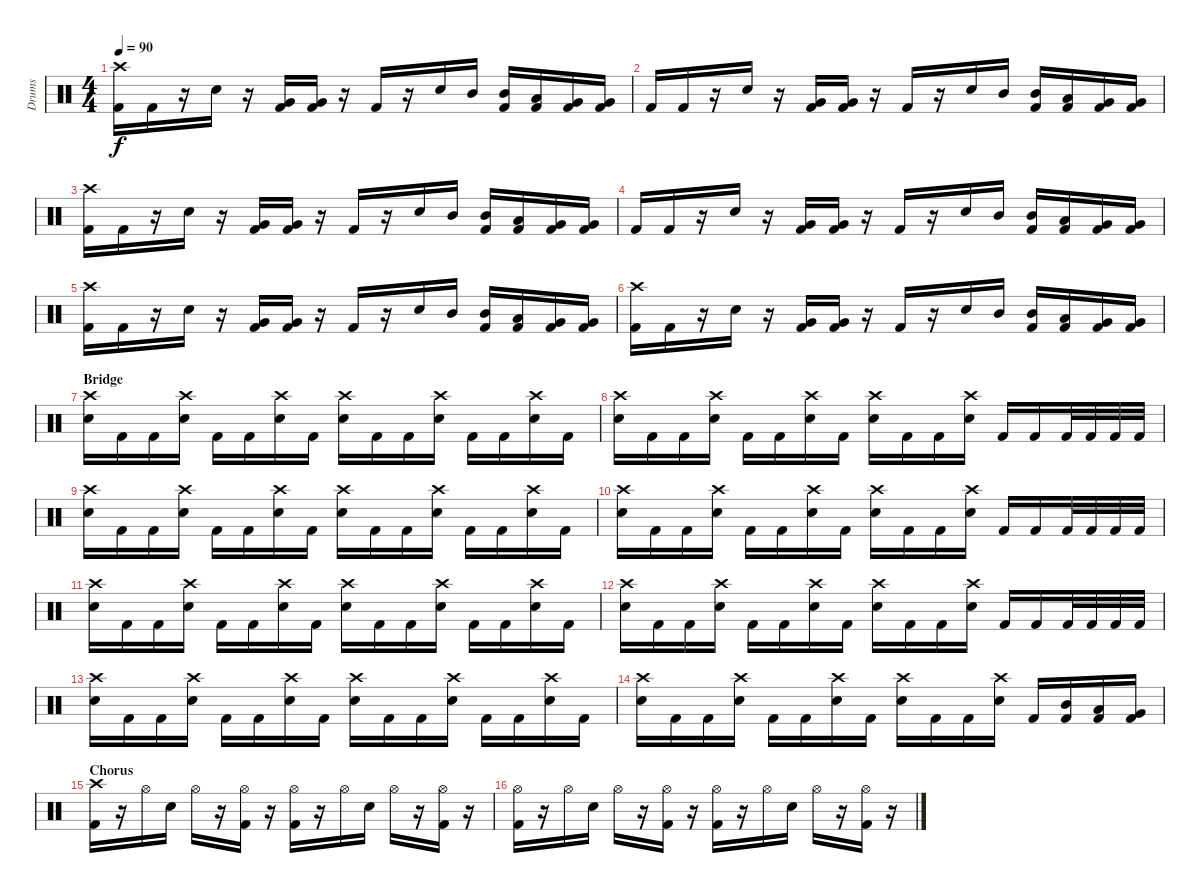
\track ("Drums" "Drums") {instrument percussion}
\staff {score}
\articulation defaults
\ts (4 4)
\tempo 90
\clef neutral
\ks c
("Kick (hit) 2" "Crash high (hit)").16{dy f} "Kick (hit) 2".16 r.16 "Snare (hit) 2".16 r.16 ("Kick (hit) 2" "Very Low Tom (hit)").16 ("Kick (hit) 2" "Very Low Tom (hit)").16 r.16 "Kick (hit) 2".16 r.16 "Snare (hit) 2".16 "Mid Tom (hit)".16 ("Kick (hit) 2" "Mid Tom (hit)").16 ("Kick (hit) 2" "Low Tom (hit)").16 ("Kick (hit) 2" "Very Low Tom (hit)").16 ("Kick (hit) 2" "Very Low Tom (hit)").16 |
"Kick (hit) 2".16 "Kick (hit) 2".16 r.16 "Snare (hit) 2".16 r.16 ("Kick (hit) 2" "Very Low Tom (hit)").16 ("Kick (hit) 2" "Very Low Tom (hit)").16 r.16 "Kick (hit) 2".16 r.16 "Snare (hit) 2".16 "Mid Tom (hit)".16 ("Kick (hit) 2" "Mid Tom (hit)").16 ("Kick (hit) 2" "Low Tom (hit)").16 ("Kick (hit) 2" "Very Low Tom (hit)").16 ("Kick (hit) 2" "Very Low Tom (hit)").16 |
("Kick (hit) 2" "Crash high (hit)").16 "Kick (hit) 2".16 r.16 "Snare (hit) 2".16 r.16 ("Kick (hit) 2" "Very Low Tom (hit)").16 ("Kick (hit) 2" "Very Low Tom (hit)").16 r.16 "Kick (hit) 2".16 r.16 "Snare (hit) 2".16 "Mid Tom (hit)".16 ("Kick (hit) 2" "Mid Tom (hit)").16 ("Kick (hit) 2" "Low Tom (hit)").16 ("Kick (hit) 2" "Very Low Tom (hit)").16 ("Kick (hit) 2" "Very Low Tom (hit)").16 |
"Kick (hit) 2".16 "Kick (hit) 2".16 r.16 "Snare (hit) 2".16 r.16 ("Kick (hit) 2" "Very Low Tom (hit)").16 ("Kick (hit) 2" "Very Low Tom (hit)").16 r.16 "Kick (hit) 2".16 r.16 "Snare (hit) 2".16 "Mid Tom (hit)".16 ("Kick (hit) 2" "Mid Tom (hit)").16 ("Kick (hit) 2" "Low Tom (hit)").16 ("Kick (hit) 2" "Very Low Tom (hit)").16 ("Kick (hit) 2" "Very Low Tom (hit)").16 |
("Kick (hit) 2" "Crash high (hit)").16 "Kick (hit) 2".16 r.16 "Snare (hit) 2".16 r.16 ("Kick (hit) 2" "Very Low Tom (hit)").16 ("Kick (hit) 2" "Very Low Tom (hit)").16 r.16 "Kick (hit) 2".16 r.16 "Snare (hit) 2".16 "Mid Tom (hit)".16 ("Kick (hit) 2" "Mid Tom (hit)").16 ("Kick (hit) 2" "Low Tom (hit)").16 ("Kick (hit) 2" "Very Low Tom (hit)").16 ("Kick (hit) 2" "Very Low Tom (hit)").16 |
("Kick (hit) 2" "Crash high (hit)").16 "Kick (hit) 2".16 r.16 "Snare (hit) 2".16 r.16 ("Kick (hit) 2" "Very Low Tom (hit)").16 ("Kick (hit) 2" "Very Low Tom (hit)").16 r.16 "Kick (hit) 2".16 r.16 "Snare (hit) 2".16 "Mid Tom (hit)".16 ("Kick (hit) 2" "Mid Tom (hit)").16 ("Kick (hit) 2" "Low Tom (hit)").16 ("Kick (hit) 2" "Very Low Tom (hit)").16 ("Kick (hit) 2" "Very Low Tom (hit)").16 |
\section ("" "Bridge")
("Snare (hit) 2" "Crash high (hit)").16 "Kick (hit) 2".16 "Kick (hit) 2".16 ("Snare (hit) 2" "Crash high (hit)").16 "Kick (hit) 2".16 "Kick (hit) 2".16 ("Snare (hit) 2" "Crash high (hit)").16 "Kick (hit) 2".16 ("Snare (hit) 2" "Crash high (hit)").16 "Kick (hit) 2".16 "Kick (hit) 2".16 ("Snare (hit) 2" "Crash high (hit)").16 "Kick (hit) 2".16 "Kick (hit) 2".16 ("Snare (hit) 2" "Crash high (hit)").16 "Kick (hit) 2".16 |
("Snare (hit) 2" "Crash high (hit)").16 "Kick (hit) 2".16 "Kick (hit) 2".16 ("Snare (hit) 2" "Crash high (hit)").16 "Kick (hit) 2".16 "Kick (hit) 2".16 ("Snare (hit) 2" "Crash high (hit)").16 "Kick (hit) 2".16 ("Snare (hit) 2" "Crash high (hit)").16 "Kick (hit) 2".16 "Kick (hit) 2".16 ("Snare (hit) 2" "Crash high (hit)").16 "Kick (hit) 2".16 "Kick (hit) 2".16 "Kick (hit) 2".32 "Kick (hit) 2".32 "Kick (hit) 2".32 "Kick (hit) 2".32 |
("Snare (hit) 2" "Crash high (hit)").16 "Kick (hit) 2".16 "Kick (hit) 2".16 ("Snare (hit) 2" "Crash high (hit)").16 "Kick (hit) 2".16 "Kick (hit) 2".16 ("Snare (hit) 2" "Crash high (hit)").16 "Kick (hit) 2".16 ("Snare (hit) 2" "Crash high (hit)").16 "Kick (hit) 2".16 "Kick (hit) 2".16 ("Snare (hit) 2" "Crash high (hit)").16 "Kick (hit) 2".16 "Kick (hit) 2".16 ("Snare (hit) 2" "Crash high (hit)").16 "Kick (hit) 2".16 |
("Snare (hit) 2" "Crash high (hit)").16 "Kick (hit) 2".16 "Kick (hit) 2".16 ("Snare (hit) 2" "Crash high (hit)").16 "Kick (hit) 2".16 "Kick (hit) 2".16 ("Snare (hit) 2" "Crash high (hit)").16 "Kick (hit) 2".16 ("Snare (hit) 2" "Crash high (hit)").16 "Kick (hit) 2".16 "Kick (hit) 2".16 ("Snare (hit) 2" "Crash high (hit)").16 "Kick (hit) 2".16 "Kick (hit) 2".16 "Kick (hit) 2".32 "Kick (hit) 2".32 "Kick (hit) 2".32 "Kick (hit) 2".32 |
("Snare (hit) 2" "Crash high (hit)").16 "Kick (hit) 2".16 "Kick (hit) 2".16 ("Snare (hit) 2" "Crash high (hit)").16 "Kick (hit) 2".16 "Kick (hit) 2".16 ("Snare (hit) 2" "Crash high (hit)").16 "Kick (hit) 2".16 ("Snare (hit) 2" "Crash high (hit)").16 "Kick (hit) 2".16 "Kick (hit) 2".16 ("Snare (hit) 2" "Crash high (hit)").16 "Kick (hit) 2".16 "Kick (hit) 2".16 ("Snare (hit) 2" "Crash high (hit)").16 "Kick (hit) 2".16 |
("Snare (hit) 2" "Crash high (hit)").16 "Kick (hit) 2".16 "Kick (hit) 2".16 ("Snare (hit) 2" "Crash high (hit)").16 "Kick (hit) 2".16 "Kick (hit) 2".16 ("Snare (hit) 2" "Crash high (hit)").16 "Kick (hit) 2".16 ("Snare (hit) 2" "Crash high (hit)").16 "Kick (hit) 2".16 "Kick (hit) 2".16 ("Snare (hit) 2" "Crash high (hit)").16 "Kick (hit) 2".16 "Kick (hit) 2".16 "Kick (hit) 2".32 "Kick (hit) 2".32 "Kick (hit) 2".32 "Kick (hit) 2".32 |
("Snare (hit) 2" "Crash high (hit)").16 "Kick (hit) 2".16 "Kick (hit) 2".16 ("Snare (hit) 2" "Crash high (hit)").16 "Kick (hit) 2".16 "Kick (hit) 2".16 ("Snare (hit) 2" "Crash high (hit)").16 "Kick (hit) 2".16 ("Snare (hit) 2" "Crash high (hit)").16 "Kick (hit) 2".16 "Kick (hit) 2".16 ("Snare (hit) 2" "Crash high (hit)").16 "Kick (hit) 2".16 "Kick (hit) 2".16 ("Snare (hit) 2" "Crash high (hit)").16 "Kick (hit) 2".16 |
("Snare (hit) 2" "Crash high (hit)").16 "Kick (hit) 2".16 "Kick (hit) 2".16 ("Snare (hit) 2" "Crash high (hit)").16 "Kick (hit) 2".16 "Kick (hit) 2".16 ("Snare (hit) 2" "Crash high (hit)").16 "Kick (hit) 2".16 ("Snare (hit) 2" "Crash high (hit)").16 "Kick (hit) 2".16 "Kick (hit) 2".16 ("Snare (hit) 2" "Crash high (hit)").16 "Kick (hit) 2".16 ("Kick (hit) 2" "Mid Tom (hit)").16 ("Kick (hit) 2" "Low Tom (hit)").16 ("Kick (hit) 2" "Very Low Tom (hit)").16 |
\section ("" "Chorus")
("Kick (hit) 2" "Crash high (hit)").16 r.16 "Hi-Hat (open)".16 "Snare (hit) 2".16 "Hi-Hat (open)".16 r.16 ("Kick (hit) 2" "Hi-Hat (open)").16 r.16 ("Kick (hit) 2" "Hi-Hat (open)").16 r.16 "Hi-Hat (open)".16 "Snare (hit) 2".16 "Hi-Hat (open)".16 r.16 ("Kick (hit) 2" "Hi-Hat (open)").16 r.16 |
("Kick (hit) 2" "Hi-Hat (open)").16 r.16 "Hi-Hat (open)".16 "Snare (hit) 2".16 "Hi-Hat (open)".16 r.16 ("Kick (hit) 2" "Hi-Hat (open)").16 r.16 ("Kick (hit) 2" "Hi-Hat (open)").16 r.16 "Hi-Hat (open)".16 "Snare (hit) 2".16 "Hi-Hat (open)".16 r.16 ("Kick (hit) 2" "Hi-Hat (open)").16 r.16
